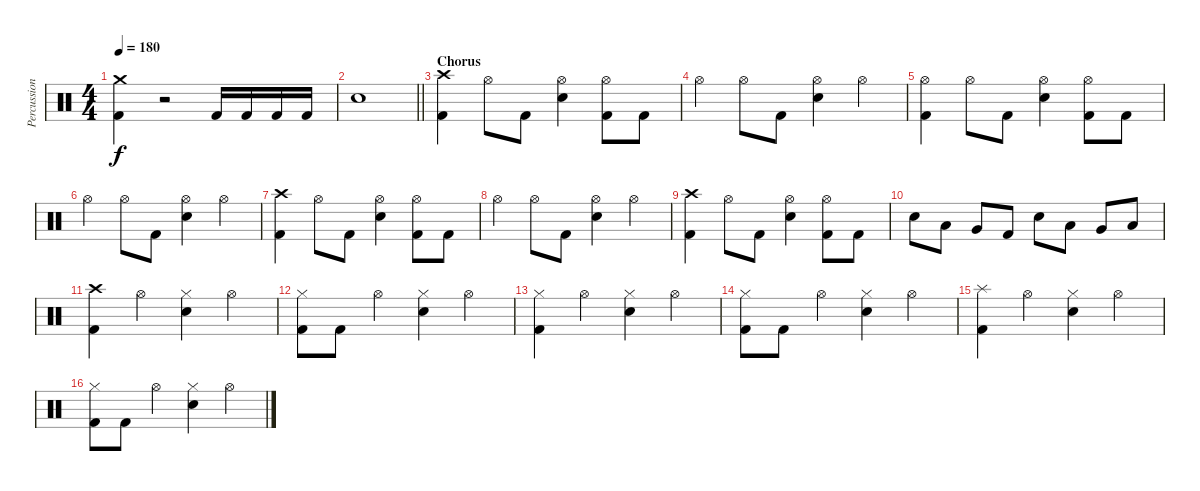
\track ("Percussion" "Percussion") {instrument percussion}
\staff {score}
\articulation defaults
\ts (4 4)
\tempo 180
\clef neutral
\ks c
("Crash medium (hit)" "Kick (hit) 2").4{dy f} r.2 "Kick (hit) 2".16 "Kick (hit) 2".16 "Kick (hit) 2".16 "Kick (hit) 2".16 |
\barLineRight lightlight "Electric Snare (hit)".1
|
\section ("" "Chorus")
("Crash high (hit)" "Kick (hit) 2").4 "Hi-Hat (open)".8 "Kick (hit) 2".8 ("Hi-Hat (open)" "Electric Snare (hit)").4 ("Hi-Hat (open)" "Kick (hit) 2").8 "Kick (hit) 2".8 |
"Hi-Hat (open)".4 "Hi-Hat (open)".8 "Kick (hit) 2".8 ("Hi-Hat (open)" "Electric Snare (hit)").4 "Hi-Hat (open)".4 |
("Hi-Hat (open)" "Kick (hit) 2").4 "Hi-Hat (open)".8 "Kick (hit) 2".8 ("Hi-Hat (open)" "Electric Snare (hit)").4 ("Hi-Hat (open)" "Kick (hit) 2").8 "Kick (hit) 2".8 |
"Hi-Hat (open)".4 "Hi-Hat (open)".8 "Kick (hit) 2".8 ("Hi-Hat (open)" "Electric Snare (hit)").4 "Hi-Hat (open)".4 |
("Crash high (hit)" "Kick (hit) 2").4 "Hi-Hat (open)".8 "Kick (hit) 2".8 ("Hi-Hat (open)" "Electric Snare (hit)").4 ("Hi-Hat (open)" "Kick (hit) 2").8 "Kick (hit) 2".8 |
"Hi-Hat (open)".4 "Hi-Hat (open)".8 "Kick (hit) 2".8 ("Hi-Hat (open)" "Electric Snare (hit)").4 "Hi-Hat (open)".4 |
("Crash high (hit)" "Kick (hit) 2").4 "Hi-Hat (open)".8 "Kick (hit) 2".8 ("Hi-Hat (open)" "Electric Snare (hit)").4 ("Hi-Hat (open)" "Kick (hit) 2").8 "Kick (hit) 2".8 |
"Electric Snare (hit)".8 "Low Tom (hit)".8 "Very Low Tom (hit)".8 "Kick (hit) 2".8 "Electric Snare (hit)".8 "Low Tom (hit)".8 "Very Low Tom (hit)".8 "Low Floor Tom (hit)".8 |
("Crash high (hit)" "Kick (hit) 2").4 "Hi-Hat (open)".4 ("Hi-Hat (closed)" "Electric Snare (hit)").4 "Hi-Hat (open)".4 |
("Hi-Hat (closed)" "Kick (hit) 2").8 "Kick (hit) 2".8 "Hi-Hat (open)".4 ("Hi-Hat (closed)" "Electric Snare (hit)").4 "Hi-Hat (open)".4 |
("Hi-Hat (closed)" "Kick (hit) 2").4 "Hi-Hat (open)".4 ("Hi-Hat (closed)" "Electric Snare (hit)").4 "Hi-Hat (open)".4 |
("Hi-Hat (closed)" "Kick (hit) 2").8 "Kick (hit) 2".8 "Hi-Hat (open)".4 ("Hi-Hat (closed)" "Electric Snare (hit)").4 "Hi-Hat (open)".4 |
("Splash (hit)" "Kick (hit) 2").4 "Hi-Hat (open)".4 ("Hi-Hat (closed)" "Electric Snare (hit)").4 "Hi-Hat (open)".4 |
("Hi-Hat (closed)" "Kick (hit) 2").8 "Kick (hit) 2".8 "Hi-Hat (open)".4 ("Hi-Hat (closed)" "Electric Snare (hit)").4 "Hi-Hat (open)".4
